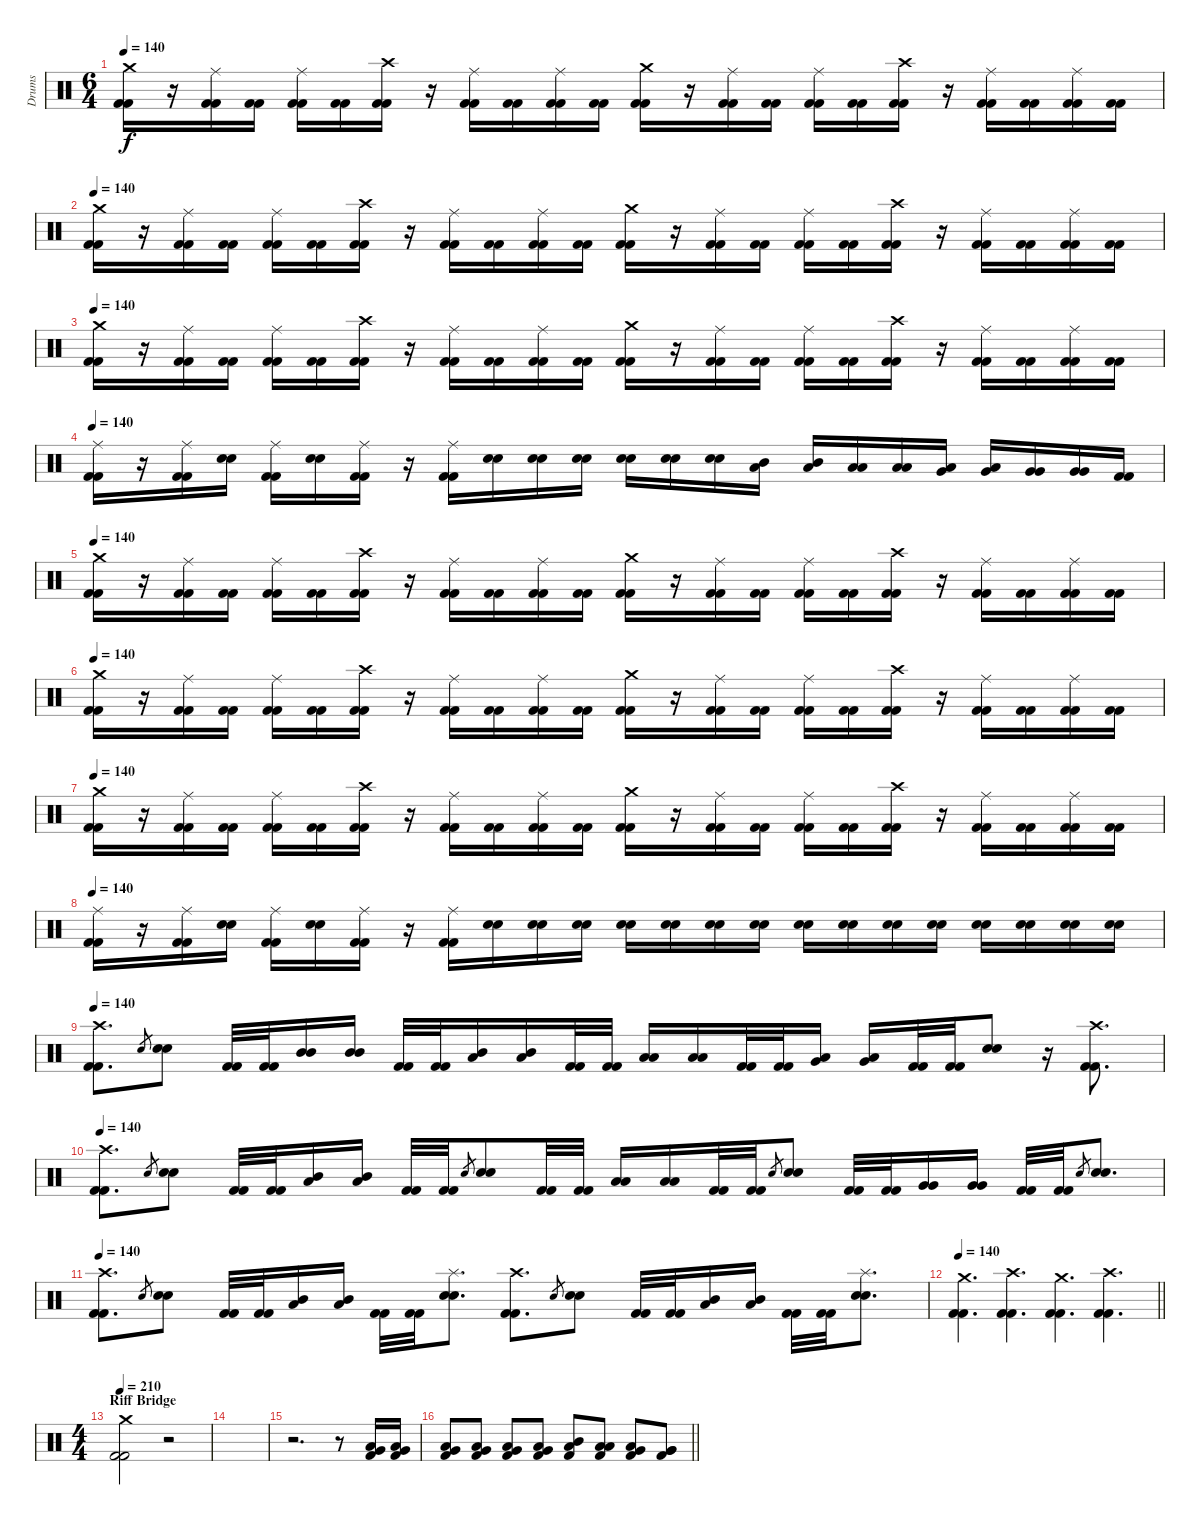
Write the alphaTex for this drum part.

\track ("Drums" "Drums") {instrument percussion}
\staff {score}
\articulation defaults
\ts (6 4)
\tempo 140
\clef neutral
\ks c
("Crash medium (hit)" "Kick (hit) 2" "Kick (hit) 2").16{dy f} r.16 ("Ride (middle)" "Kick (hit) 2" "Kick (hit) 2").16 ("Kick (hit) 2" "Kick (hit) 2").16 ("Ride (middle)" "Kick (hit) 2" "Kick (hit) 2").16 ("Kick (hit) 2" "Kick (hit) 2").16 ("Crash high (hit)" "Kick (hit) 2" "Kick (hit) 2").16 r.16 ("Ride (middle)" "Kick (hit) 2" "Kick (hit) 2").16 ("Kick (hit) 2" "Kick (hit) 2").16 ("Ride (middle)" "Kick (hit) 2" "Kick (hit) 2").16 ("Kick (hit) 2" "Kick (hit) 2").16 ("Crash medium (hit)" "Kick (hit) 2" "Kick (hit) 2").16 r.16 ("Ride (middle)" "Kick (hit) 2" "Kick (hit) 2").16 ("Kick (hit) 2" "Kick (hit) 2").16 ("Ride (middle)" "Kick (hit) 2" "Kick (hit) 2").16 ("Kick (hit) 2" "Kick (hit) 2").16 ("Crash high (hit)" "Kick (hit) 2" "Kick (hit) 2").16 r.16 ("Ride (middle)" "Kick (hit) 2" "Kick (hit) 2").16 ("Kick (hit) 2" "Kick (hit) 2").16 ("Ride (middle)" "Kick (hit) 2" "Kick (hit) 2").16 ("Kick (hit) 2" "Kick (hit) 2").16 |
\tempo 140
("Crash medium (hit)" "Kick (hit) 2" "Kick (hit) 2").16 r.16 ("Ride (middle)" "Kick (hit) 2" "Kick (hit) 2").16 ("Kick (hit) 2" "Kick (hit) 2").16 ("Ride (middle)" "Kick (hit) 2" "Kick (hit) 2").16 ("Kick (hit) 2" "Kick (hit) 2").16 ("Crash high (hit)" "Kick (hit) 2" "Kick (hit) 2").16 r.16 ("Ride (middle)" "Kick (hit) 2" "Kick (hit) 2").16 ("Kick (hit) 2" "Kick (hit) 2").16 ("Ride (middle)" "Kick (hit) 2" "Kick (hit) 2").16 ("Kick (hit) 2" "Kick (hit) 2").16 ("Crash medium (hit)" "Kick (hit) 2" "Kick (hit) 2").16 r.16 ("Ride (middle)" "Kick (hit) 2" "Kick (hit) 2").16 ("Kick (hit) 2" "Kick (hit) 2").16 ("Ride (middle)" "Kick (hit) 2" "Kick (hit) 2").16 ("Kick (hit) 2" "Kick (hit) 2").16 ("Crash high (hit)" "Kick (hit) 2" "Kick (hit) 2").16 r.16 ("Ride (middle)" "Kick (hit) 2" "Kick (hit) 2").16 ("Kick (hit) 2" "Kick (hit) 2").16 ("Ride (middle)" "Kick (hit) 2" "Kick (hit) 2").16 ("Kick (hit) 2" "Kick (hit) 2").16 |
\tempo 140
("Crash medium (hit)" "Kick (hit) 2" "Kick (hit) 2").16 r.16 ("Ride (middle)" "Kick (hit) 2" "Kick (hit) 2").16 ("Kick (hit) 2" "Kick (hit) 2").16 ("Ride (middle)" "Kick (hit) 2" "Kick (hit) 2").16 ("Kick (hit) 2" "Kick (hit) 2").16 ("Crash high (hit)" "Kick (hit) 2" "Kick (hit) 2").16 r.16 ("Ride (middle)" "Kick (hit) 2" "Kick (hit) 2").16 ("Kick (hit) 2" "Kick (hit) 2").16 ("Ride (middle)" "Kick (hit) 2" "Kick (hit) 2").16 ("Kick (hit) 2" "Kick (hit) 2").16 ("Crash medium (hit)" "Kick (hit) 2" "Kick (hit) 2").16 r.16 ("Ride (middle)" "Kick (hit) 2" "Kick (hit) 2").16 ("Kick (hit) 2" "Kick (hit) 2").16 ("Ride (middle)" "Kick (hit) 2" "Kick (hit) 2").16 ("Kick (hit) 2" "Kick (hit) 2").16 ("Crash high (hit)" "Kick (hit) 2" "Kick (hit) 2").16 r.16 ("Ride (middle)" "Kick (hit) 2" "Kick (hit) 2").16 ("Kick (hit) 2" "Kick (hit) 2").16 ("Ride (middle)" "Kick (hit) 2" "Kick (hit) 2").16 ("Kick (hit) 2" "Kick (hit) 2").16 |
\tempo 140
("Ride (middle)" "Kick (hit) 2" "Kick (hit) 2").16 r.16 ("Ride (middle)" "Kick (hit) 2" "Kick (hit) 2").16 ("Snare (hit) 2" "Snare (hit) 2").16 ("Ride (middle)" "Kick (hit) 2" "Kick (hit) 2").16 ("Snare (hit) 2" "Snare (hit) 2").16 ("Ride (middle)" "Kick (hit) 2" "Kick (hit) 2").16 r.16 ("Ride (middle)" "Kick (hit) 2" "Kick (hit) 2").16 ("Snare (hit) 2" "Snare (hit) 2").16 ("Snare (hit) 2" "Snare (hit) 2").16 ("Snare (hit) 2" "Snare (hit) 2").16 ("Snare (hit) 2" "Snare (hit) 2").16 ("Snare (hit) 2" "Snare (hit) 2").16 ("Snare (hit) 2" "Snare (hit) 2").16 ("Mid Tom (hit)" "Low Tom (hit)").16 ("Mid Tom (hit)" "Low Tom (hit)").16 ("Low Tom (hit)" "Low Tom (hit)").16 ("Low Tom (hit)" "Low Tom (hit)").16 ("Very Low Tom (hit)" "Low Tom (hit)").16 ("Very Low Tom (hit)" "Low Tom (hit)").16 ("Very Low Tom (hit)" "Very Low Tom (hit)").16 ("Very Low Tom (hit)" "Very Low Tom (hit)").16 ("Kick (hit) 2" "Kick (hit) 2").16 |
\tempo 140
("Crash medium (hit)" "Kick (hit) 2" "Kick (hit) 2").16 r.16 ("Ride (middle)" "Kick (hit) 2" "Kick (hit) 2").16 ("Kick (hit) 2" "Kick (hit) 2").16 ("Ride (middle)" "Kick (hit) 2" "Kick (hit) 2").16 ("Kick (hit) 2" "Kick (hit) 2").16 ("Crash high (hit)" "Kick (hit) 2" "Kick (hit) 2").16 r.16 ("Ride (middle)" "Kick (hit) 2" "Kick (hit) 2").16 ("Kick (hit) 2" "Kick (hit) 2").16 ("Ride (middle)" "Kick (hit) 2" "Kick (hit) 2").16 ("Kick (hit) 2" "Kick (hit) 2").16 ("Crash medium (hit)" "Kick (hit) 2" "Kick (hit) 2").16 r.16 ("Ride (middle)" "Kick (hit) 2" "Kick (hit) 2").16 ("Kick (hit) 2" "Kick (hit) 2").16 ("Ride (middle)" "Kick (hit) 2" "Kick (hit) 2").16 ("Kick (hit) 2" "Kick (hit) 2").16 ("Crash high (hit)" "Kick (hit) 2" "Kick (hit) 2").16 r.16 ("Ride (middle)" "Kick (hit) 2" "Kick (hit) 2").16 ("Kick (hit) 2" "Kick (hit) 2").16 ("Ride (middle)" "Kick (hit) 2" "Kick (hit) 2").16 ("Kick (hit) 2" "Kick (hit) 2").16 |
\tempo 140
("Crash medium (hit)" "Kick (hit) 2" "Kick (hit) 2").16 r.16 ("Ride (middle)" "Kick (hit) 2" "Kick (hit) 2").16 ("Kick (hit) 2" "Kick (hit) 2").16 ("Ride (middle)" "Kick (hit) 2" "Kick (hit) 2").16 ("Kick (hit) 2" "Kick (hit) 2").16 ("Crash high (hit)" "Kick (hit) 2" "Kick (hit) 2").16 r.16 ("Ride (middle)" "Kick (hit) 2" "Kick (hit) 2").16 ("Kick (hit) 2" "Kick (hit) 2").16 ("Ride (middle)" "Kick (hit) 2" "Kick (hit) 2").16 ("Kick (hit) 2" "Kick (hit) 2").16 ("Crash medium (hit)" "Kick (hit) 2" "Kick (hit) 2").16 r.16 ("Ride (middle)" "Kick (hit) 2" "Kick (hit) 2").16 ("Kick (hit) 2" "Kick (hit) 2").16 ("Ride (middle)" "Kick (hit) 2" "Kick (hit) 2").16 ("Kick (hit) 2" "Kick (hit) 2").16 ("Crash high (hit)" "Kick (hit) 2" "Kick (hit) 2").16 r.16 ("Ride (middle)" "Kick (hit) 2" "Kick (hit) 2").16 ("Kick (hit) 2" "Kick (hit) 2").16 ("Ride (middle)" "Kick (hit) 2" "Kick (hit) 2").16 ("Kick (hit) 2" "Kick (hit) 2").16 |
\tempo 140
("Crash medium (hit)" "Kick (hit) 2" "Kick (hit) 2").16 r.16 ("Ride (middle)" "Kick (hit) 2" "Kick (hit) 2").16 ("Kick (hit) 2" "Kick (hit) 2").16 ("Ride (middle)" "Kick (hit) 2" "Kick (hit) 2").16 ("Kick (hit) 2" "Kick (hit) 2").16 ("Crash high (hit)" "Kick (hit) 2" "Kick (hit) 2").16 r.16 ("Ride (middle)" "Kick (hit) 2" "Kick (hit) 2").16 ("Kick (hit) 2" "Kick (hit) 2").16 ("Ride (middle)" "Kick (hit) 2" "Kick (hit) 2").16 ("Kick (hit) 2" "Kick (hit) 2").16 ("Crash medium (hit)" "Kick (hit) 2" "Kick (hit) 2").16 r.16 ("Ride (middle)" "Kick (hit) 2" "Kick (hit) 2").16 ("Kick (hit) 2" "Kick (hit) 2").16 ("Ride (middle)" "Kick (hit) 2" "Kick (hit) 2").16 ("Kick (hit) 2" "Kick (hit) 2").16 ("Crash high (hit)" "Kick (hit) 2" "Kick (hit) 2").16 r.16 ("Ride (middle)" "Kick (hit) 2" "Kick (hit) 2").16 ("Kick (hit) 2" "Kick (hit) 2").16 ("Ride (middle)" "Kick (hit) 2" "Kick (hit) 2").16 ("Kick (hit) 2" "Kick (hit) 2").16 |
\tempo 140
("Ride (middle)" "Kick (hit) 2" "Kick (hit) 2").16 r.16 ("Ride (middle)" "Kick (hit) 2" "Kick (hit) 2").16 ("Snare (hit) 2" "Snare (hit) 2").16 ("Ride (middle)" "Kick (hit) 2" "Kick (hit) 2").16 ("Snare (hit) 2" "Snare (hit) 2").16 ("Ride (middle)" "Kick (hit) 2" "Kick (hit) 2").16 r.16 ("Ride (middle)" "Kick (hit) 2" "Kick (hit) 2").16 ("Snare (hit) 2" "Snare (hit) 2").16 ("Snare (hit) 2" "Snare (hit) 2").16 ("Snare (hit) 2" "Snare (hit) 2").16 ("Snare (hit) 2" "Snare (hit) 2").16 ("Snare (hit) 2" "Snare (hit) 2").16 ("Snare (hit) 2" "Snare (hit) 2").16 ("Snare (hit) 2" "Snare (hit) 2").16 ("Snare (hit) 2" "Snare (hit) 2").16 ("Snare (hit) 2" "Snare (hit) 2").16 ("Snare (hit) 2" "Snare (hit) 2").16 ("Snare (hit) 2" "Snare (hit) 2").16 ("Snare (hit) 2" "Snare (hit) 2").16 ("Snare (hit) 2" "Snare (hit) 2").16 ("Snare (hit) 2" "Snare (hit) 2").16 ("Snare (hit) 2" "Snare (hit) 2").16 |
\tempo 140
("Crash high (hit)" "Kick (hit) 2" "Kick (hit) 2").8{d} "Snare (hit) 2".8{gr} ("Snare (hit) 2" "Snare (hit) 2").8 ("Kick (hit) 2" "Kick (hit) 2").32 ("Kick (hit) 2" "Kick (hit) 2").32 ("Mid Tom (hit)" "Mid Tom (hit)").16 ("Mid Tom (hit)" "Mid Tom (hit)").16 ("Kick (hit) 2" "Kick (hit) 2").32 ("Kick (hit) 2" "Kick (hit) 2").32 ("Low Tom (hit)" "Mid Tom (hit)").16 ("Mid Tom (hit)" "Low Tom (hit)").16 ("Kick (hit) 2" "Kick (hit) 2").32 ("Kick (hit) 2" "Kick (hit) 2").32 ("Low Tom (hit)" "Low Tom (hit)").16 ("Low Tom (hit)" "Low Tom (hit)").16 ("Kick (hit) 2" "Kick (hit) 2").32 ("Kick (hit) 2" "Kick (hit) 2").32 ("Very Low Tom (hit)" "Low Tom (hit)").16 ("Very Low Tom (hit)" "Low Tom (hit)").16 ("Kick (hit) 2" "Kick (hit) 2").32 ("Kick (hit) 2" "Kick (hit) 2").32 ("Snare (hit) 2" "Snare (hit) 2").8 r.16 ("Crash high (hit)" "Kick (hit) 2" "Kick (hit) 2").8{d} |
\tempo 140
("Crash high (hit)" "Kick (hit) 2" "Kick (hit) 2").8{d} "Snare (hit) 2".8{gr} ("Snare (hit) 2" "Snare (hit) 2").8 ("Kick (hit) 2" "Kick (hit) 2").32 ("Kick (hit) 2" "Kick (hit) 2").32 ("Mid Tom (hit)" "Low Tom (hit)").16 ("Mid Tom (hit)" "Low Tom (hit)").16 ("Kick (hit) 2" "Kick (hit) 2").32 ("Kick (hit) 2" "Kick (hit) 2").32 "Snare (hit) 2".8{gr} ("Snare (hit) 2" "Snare (hit) 2").8 ("Kick (hit) 2" "Kick (hit) 2").32 ("Kick (hit) 2" "Kick (hit) 2").32 ("Low Tom (hit)" "Low Tom (hit)").16 ("Low Tom (hit)" "Low Tom (hit)").16 ("Kick (hit) 2" "Kick (hit) 2").32 ("Kick (hit) 2" "Kick (hit) 2").32 "Snare (hit) 2".8{gr} ("Snare (hit) 2" "Snare (hit) 2").8 ("Kick (hit) 2" "Kick (hit) 2").32 ("Kick (hit) 2" "Kick (hit) 2").32 ("Very Low Tom (hit)" "Very Low Tom (hit)").16 ("Very Low Tom (hit)" "Very Low Tom (hit)").16 ("Kick (hit) 2" "Kick (hit) 2").32 ("Kick (hit) 2" "Kick (hit) 2").32 "Snare (hit) 2".8{gr} ("Snare (hit) 2" "Snare (hit) 2").8{d} |
\tempo 140
("Crash high (hit)" "Kick (hit) 2" "Kick (hit) 2").8{d} "Snare (hit) 2".8{gr} ("Snare (hit) 2" "Snare (hit) 2").8 ("Kick (hit) 2" "Kick (hit) 2").32 ("Kick (hit) 2" "Kick (hit) 2").32 ("Mid Tom (hit)" "Low Tom (hit)").16 ("Mid Tom (hit)" "Low Tom (hit)").16 ("Kick (hit) 2" "Kick (hit) 2").32 ("Kick (hit) 2" "Kick (hit) 2").32 ("Splash (hit)" "Snare (hit) 2" "Snare (hit) 2").8{d} ("Crash high (hit)" "Kick (hit) 2" "Kick (hit) 2").8{d} "Snare (hit) 2".8{gr} ("Snare (hit) 2" "Snare (hit) 2").8 ("Kick (hit) 2" "Kick (hit) 2").32 ("Kick (hit) 2" "Kick (hit) 2").32 ("Mid Tom (hit)" "Low Tom (hit)").16 ("Mid Tom (hit)" "Low Tom (hit)").16 ("Kick (hit) 2" "Kick (hit) 2").32 ("Kick (hit) 2" "Kick (hit) 2").32 ("Splash (hit)" "Snare (hit) 2" "Snare (hit) 2").8{d} |
\tempo 140
\barLineRight lightlight
("Crash medium (hit)" "Kick (hit) 2" "Kick (hit) 2").4{d} ("Crash high (hit)" "Kick (hit) 2" "Kick (hit) 2").4{d} ("Crash medium (hit)" "Kick (hit) 2" "Kick (hit) 2").4{d} ("Crash high (hit)" "Kick (hit) 2" "Kick (hit) 2").4{d} |
\ts (4 4)
\section ("" "Riff Bridge")
\tempo 210
("Crash medium (hit)" "Kick (hit) 2" "Kick (hit) 2").2 r.2 |
|
r.2{d} r.8 ("Low Tom (hit)" "Very Low Tom (hit)" "Kick (hit) 2").16 ("Low Tom (hit)" "Very Low Tom (hit)" "Kick (hit) 2").16 |
\barLineRight lightlight
("Low Tom (hit)" "Very Low Tom (hit)" "Kick (hit) 2").8 ("Low Tom (hit)" "Very Low Tom (hit)" "Kick (hit) 2").8 ("Low Tom (hit)" "Very Low Tom (hit)" "Kick (hit) 2").8 ("Low Tom (hit)" "Very Low Tom (hit)" "Kick (hit) 2").8 ("Mid Tom (hit)" "Low Tom (hit)" "Kick (hit) 2").8 ("Low Tom (hit)" "Low Tom (hit)" "Kick (hit) 2").8 ("Very Low Tom (hit)" "Low Tom (hit)" "Kick (hit) 2").8 ("Very Low Tom (hit)" "Very Low Tom (hit)" "Kick (hit) 2").8
